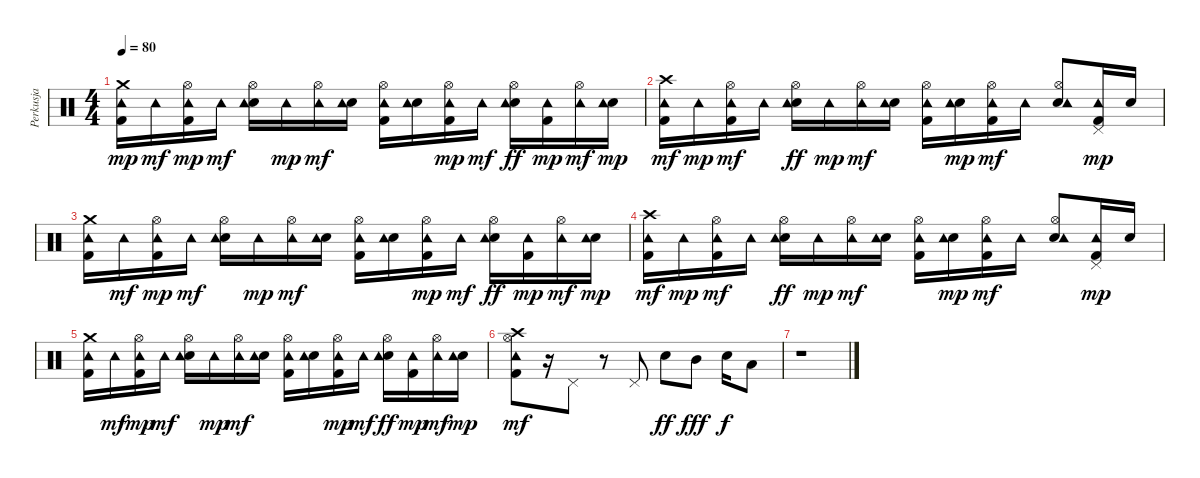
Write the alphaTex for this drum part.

\track ("Perkusja" "Perkusja") {instrument percussion}
\staff {score}
\articulation defaults
\ts (4 4)
\tempo 80
\clef neutral
\ks c
("Kick (hit) 2" "Tambourine (hit)" "Crash medium (hit)").16{dy mp} "Tambourine (hit)".16{dy mf} ("Kick (hit) 2" "Hi-Hat (open)" "Tambourine (hit)").16{dy mp} "Tambourine (hit)".16{dy mf} ("Electric Snare (hit)" "Hi-Hat (open)" "Tambourine (hit)").16 "Tambourine (hit)".16{dy mp} ("Hi-Hat (open)" "Tambourine (hit)").16{dy mf} ("Electric Snare (hit)" "Tambourine (hit)").16 ("Kick (hit) 2" "Hi-Hat (open)" "Tambourine (hit)").16 ("Electric Snare (hit)" "Tambourine (hit)").16 ("Kick (hit) 2" "Hi-Hat (open)" "Tambourine (hit)").16{dy mp} "Tambourine (hit)".16{dy mf} ("Electric Snare (hit)" "Hi-Hat (open)" "Tambourine (hit)").16{dy ff} ("Kick (hit) 2" "Tambourine (hit)").16{dy mp} ("Hi-Hat (open)" "Tambourine (hit)").16{dy mf} ("Electric Snare (hit)" "Tambourine (hit)").16{dy mp} |
("Kick (hit) 2" "Crash high (hit)" "Tambourine (hit)").16{dy mf} "Tambourine (hit)".16{dy mp} ("Kick (hit) 2" "Hi-Hat (open)" "Tambourine (hit)").16{dy mf} "Tambourine (hit)".16 ("Electric Snare (hit)" "Hi-Hat (open)" "Tambourine (hit)").16{dy ff} "Tambourine (hit)".16{dy mp} ("Hi-Hat (open)" "Tambourine (hit)").16{dy mf} ("Electric Snare (hit)" "Tambourine (hit)").16 ("Kick (hit) 2" "Hi-Hat (open)" "Tambourine (hit)").16 ("Electric Snare (hit)" "Tambourine (hit)").16{dy mp} ("Kick (hit) 2" "Hi-Hat (open)" "Tambourine (hit)").16{dy mf} "Tambourine (hit)".16 ("Electric Snare (hit)" "Hi-Hat (open)" "Tambourine (hit)").8 ("Kick (hit) 2" "Pedal Hi-Hat (hit)" "Tambourine (hit)").16{dy mp} "Electric Snare (hit)".16 |
("Kick (hit) 2" "Tambourine (hit)" "Crash medium (hit)").16 "Tambourine (hit)".16{dy mf} ("Kick (hit) 2" "Hi-Hat (open)" "Tambourine (hit)").16{dy mp} "Tambourine (hit)".16{dy mf} ("Electric Snare (hit)" "Hi-Hat (open)" "Tambourine (hit)").16 "Tambourine (hit)".16{dy mp} ("Hi-Hat (open)" "Tambourine (hit)").16{dy mf} ("Electric Snare (hit)" "Tambourine (hit)").16 ("Kick (hit) 2" "Hi-Hat (open)" "Tambourine (hit)").16 ("Electric Snare (hit)" "Tambourine (hit)").16 ("Kick (hit) 2" "Hi-Hat (open)" "Tambourine (hit)").16{dy mp} "Tambourine (hit)".16{dy mf} ("Electric Snare (hit)" "Hi-Hat (open)" "Tambourine (hit)").16{dy ff} ("Kick (hit) 2" "Tambourine (hit)").16{dy mp} ("Hi-Hat (open)" "Tambourine (hit)").16{dy mf} ("Electric Snare (hit)" "Tambourine (hit)").16{dy mp} |
("Kick (hit) 2" "Crash high (hit)" "Tambourine (hit)").16{dy mf} "Tambourine (hit)".16{dy mp} ("Kick (hit) 2" "Hi-Hat (open)" "Tambourine (hit)").16{dy mf} "Tambourine (hit)".16 ("Electric Snare (hit)" "Hi-Hat (open)" "Tambourine (hit)").16{dy ff} "Tambourine (hit)".16{dy mp} ("Hi-Hat (open)" "Tambourine (hit)").16{dy mf} ("Electric Snare (hit)" "Tambourine (hit)").16 ("Kick (hit) 2" "Hi-Hat (open)" "Tambourine (hit)").16 ("Electric Snare (hit)" "Tambourine (hit)").16{dy mp} ("Kick (hit) 2" "Hi-Hat (open)" "Tambourine (hit)").16{dy mf} "Tambourine (hit)".16 ("Electric Snare (hit)" "Hi-Hat (open)" "Tambourine (hit)").8 ("Kick (hit) 2" "Pedal Hi-Hat (hit)" "Tambourine (hit)").16{dy mp} "Electric Snare (hit)".16 |
("Kick (hit) 2" "Tambourine (hit)" "Crash medium (hit)").16 "Tambourine (hit)".16{dy mf} ("Kick (hit) 2" "Hi-Hat (open)" "Tambourine (hit)").16{dy mp} "Tambourine (hit)".16{dy mf} ("Electric Snare (hit)" "Hi-Hat (open)" "Tambourine (hit)").16 "Tambourine (hit)".16{dy mp} ("Hi-Hat (open)" "Tambourine (hit)").16{dy mf} ("Electric Snare (hit)" "Tambourine (hit)").16 ("Kick (hit) 2" "Hi-Hat (open)" "Tambourine (hit)").16 ("Electric Snare (hit)" "Tambourine (hit)").16 ("Kick (hit) 2" "Hi-Hat (open)" "Tambourine (hit)").16{dy mp} "Tambourine (hit)".16{dy mf} ("Electric Snare (hit)" "Hi-Hat (open)" "Tambourine (hit)").16{dy ff} ("Kick (hit) 2" "Tambourine (hit)").16{dy mp} ("Hi-Hat (open)" "Tambourine (hit)").16{dy mf} ("Electric Snare (hit)" "Tambourine (hit)").16{dy mp} |
("Kick (hit) 2" "Hi-Hat (open)" "Crash high (hit)" "Tambourine (hit)").8{dy mf} r.16 "Pedal Hi-Hat (hit)".8 r.8 "Pedal Hi-Hat (hit)".8 "Electric Snare (hit)".8{dy ff} "Mid Tom (hit)".8{dy fff} "Electric Snare (hit)".16{dy f} "Low Tom (hit)".8 |
r.1
